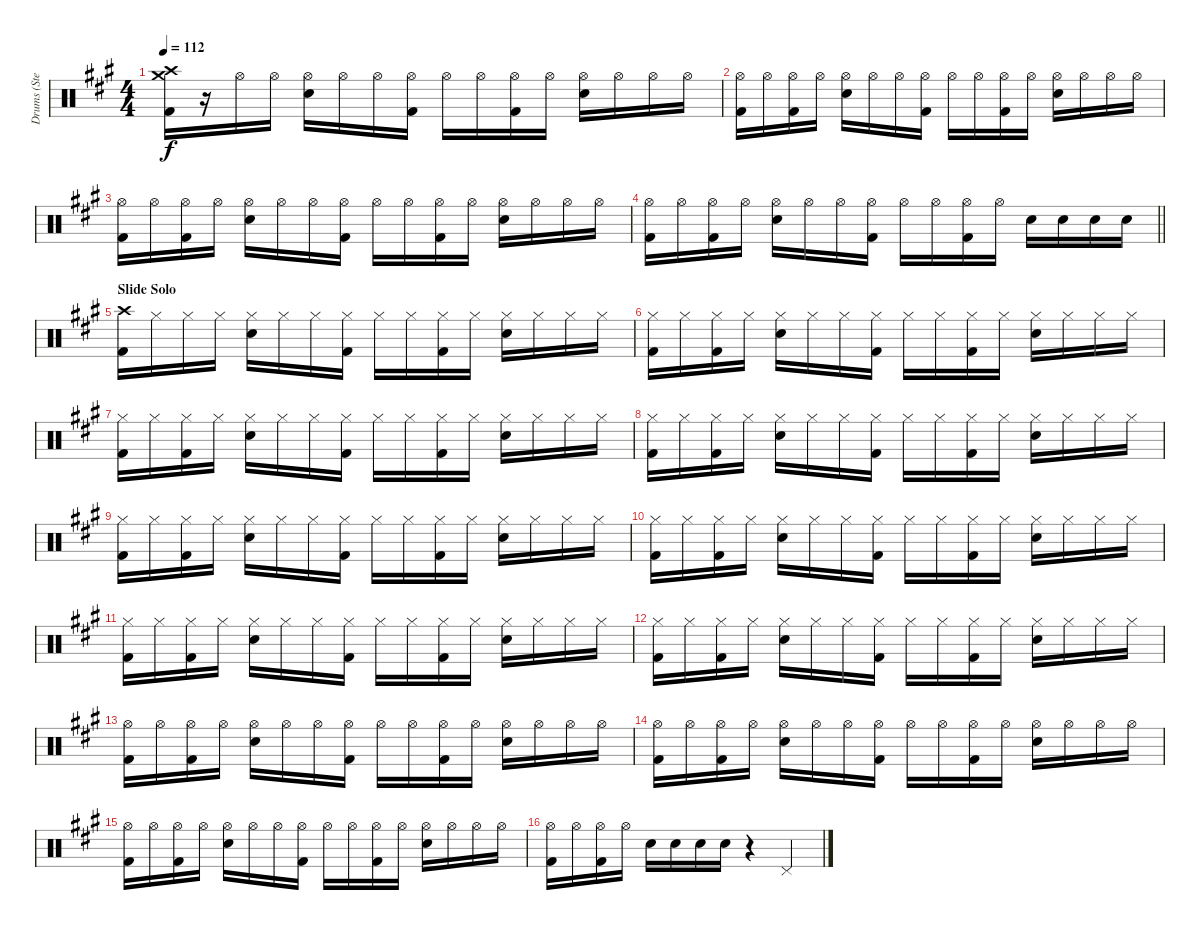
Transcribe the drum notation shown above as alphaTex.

\track ("Drums (Steven)" "Drums (Ste") {instrument percussion}
\staff {score}
\articulation defaults
\ts (4 4)
\tempo 112
\clef neutral
\ks f#minor
("Crash high (hit)" "Crash medium (hit)" "Kick (hit) 2").16{dy f} r.16 "Hi-Hat (open)".16 "Hi-Hat (open)".16 ("Hi-Hat (open)" "Snare (hit) 2").16 "Hi-Hat (open)".16 "Hi-Hat (open)".16 ("Hi-Hat (open)" "Kick (hit) 2").16 "Hi-Hat (open)".16 "Hi-Hat (open)".16 ("Hi-Hat (open)" "Kick (hit) 2").16 "Hi-Hat (open)".16 ("Hi-Hat (open)" "Snare (hit) 2").16 "Hi-Hat (open)".16 "Hi-Hat (open)".16 "Hi-Hat (open)".16 |
("Hi-Hat (open)" "Kick (hit) 2").16 "Hi-Hat (open)".16 ("Hi-Hat (open)" "Kick (hit) 2").16 "Hi-Hat (open)".16 ("Hi-Hat (open)" "Snare (hit) 2").16 "Hi-Hat (open)".16 "Hi-Hat (open)".16 ("Hi-Hat (open)" "Kick (hit) 2").16 "Hi-Hat (open)".16 "Hi-Hat (open)".16 ("Hi-Hat (open)" "Kick (hit) 2").16 "Hi-Hat (open)".16 ("Hi-Hat (open)" "Snare (hit) 2").16 "Hi-Hat (open)".16 "Hi-Hat (open)".16 "Hi-Hat (open)".16 |
("Hi-Hat (open)" "Kick (hit) 2").16 "Hi-Hat (open)".16 ("Hi-Hat (open)" "Kick (hit) 2").16 "Hi-Hat (open)".16 ("Hi-Hat (open)" "Snare (hit) 2").16 "Hi-Hat (open)".16 "Hi-Hat (open)".16 ("Hi-Hat (open)" "Kick (hit) 2").16 "Hi-Hat (open)".16 "Hi-Hat (open)".16 ("Hi-Hat (open)" "Kick (hit) 2").16 "Hi-Hat (open)".16 ("Hi-Hat (open)" "Snare (hit) 2").16 "Hi-Hat (open)".16 "Hi-Hat (open)".16 "Hi-Hat (open)".16 |
\barLineRight lightlight
("Hi-Hat (open)" "Kick (hit) 2").16 "Hi-Hat (open)".16 ("Hi-Hat (open)" "Kick (hit) 2").16 "Hi-Hat (open)".16 ("Hi-Hat (open)" "Snare (hit) 2").16 "Hi-Hat (open)".16 "Hi-Hat (open)".16 ("Hi-Hat (open)" "Kick (hit) 2").16 "Hi-Hat (open)".16 "Hi-Hat (open)".16 ("Hi-Hat (open)" "Kick (hit) 2").16 "Hi-Hat (open)".16 "Snare (hit) 2".16 "Snare (hit) 2".16 "Snare (hit) 2".16 "Snare (hit) 2".16 |
\section ("" "Slide Solo")
("Crash high (hit)" "Kick (hit) 2").16 "Hi-Hat (closed)".16 "Hi-Hat (closed)".16 "Hi-Hat (closed)".16 ("Hi-Hat (closed)" "Snare (hit) 2").16 "Hi-Hat (closed)".16 "Hi-Hat (closed)".16 ("Hi-Hat (closed)" "Kick (hit) 2").16 "Hi-Hat (closed)".16 "Hi-Hat (closed)".16 ("Hi-Hat (closed)" "Kick (hit) 2").16 "Hi-Hat (closed)".16 ("Hi-Hat (closed)" "Snare (hit) 2").16 "Hi-Hat (closed)".16 "Hi-Hat (closed)".16 "Hi-Hat (closed)".16 |
("Hi-Hat (closed)" "Kick (hit) 2").16 "Hi-Hat (closed)".16 ("Hi-Hat (closed)" "Kick (hit) 2").16 "Hi-Hat (closed)".16 ("Hi-Hat (closed)" "Snare (hit) 2").16 "Hi-Hat (closed)".16 "Hi-Hat (closed)".16 ("Hi-Hat (closed)" "Kick (hit) 2").16 "Hi-Hat (closed)".16 "Hi-Hat (closed)".16 ("Hi-Hat (closed)" "Kick (hit) 2").16 "Hi-Hat (closed)".16 ("Hi-Hat (closed)" "Snare (hit) 2").16 "Hi-Hat (closed)".16 "Hi-Hat (closed)".16 "Hi-Hat (closed)".16 |
("Hi-Hat (closed)" "Kick (hit) 2").16 "Hi-Hat (closed)".16 ("Hi-Hat (closed)" "Kick (hit) 2").16 "Hi-Hat (closed)".16 ("Hi-Hat (closed)" "Snare (hit) 2").16 "Hi-Hat (closed)".16 "Hi-Hat (closed)".16 ("Hi-Hat (closed)" "Kick (hit) 2").16 "Hi-Hat (closed)".16 "Hi-Hat (closed)".16 ("Hi-Hat (closed)" "Kick (hit) 2").16 "Hi-Hat (closed)".16 ("Hi-Hat (closed)" "Snare (hit) 2").16 "Hi-Hat (closed)".16 "Hi-Hat (closed)".16 "Hi-Hat (closed)".16 |
("Hi-Hat (closed)" "Kick (hit) 2").16 "Hi-Hat (closed)".16 ("Hi-Hat (closed)" "Kick (hit) 2").16 "Hi-Hat (closed)".16 ("Hi-Hat (closed)" "Snare (hit) 2").16 "Hi-Hat (closed)".16 "Hi-Hat (closed)".16 ("Hi-Hat (closed)" "Kick (hit) 2").16 "Hi-Hat (closed)".16 "Hi-Hat (closed)".16 ("Hi-Hat (closed)" "Kick (hit) 2").16 "Hi-Hat (closed)".16 ("Hi-Hat (closed)" "Snare (hit) 2").16 "Hi-Hat (closed)".16 "Hi-Hat (closed)".16 "Hi-Hat (closed)".16 |
("Hi-Hat (closed)" "Kick (hit) 2").16 "Hi-Hat (closed)".16 ("Hi-Hat (closed)" "Kick (hit) 2").16 "Hi-Hat (closed)".16 ("Hi-Hat (closed)" "Snare (hit) 2").16 "Hi-Hat (closed)".16 "Hi-Hat (closed)".16 ("Hi-Hat (closed)" "Kick (hit) 2").16 "Hi-Hat (closed)".16 "Hi-Hat (closed)".16 ("Hi-Hat (closed)" "Kick (hit) 2").16 "Hi-Hat (closed)".16 ("Hi-Hat (closed)" "Snare (hit) 2").16 "Hi-Hat (closed)".16 "Hi-Hat (closed)".16 "Hi-Hat (closed)".16 |
("Hi-Hat (closed)" "Kick (hit) 2").16 "Hi-Hat (closed)".16 ("Hi-Hat (closed)" "Kick (hit) 2").16 "Hi-Hat (closed)".16 ("Hi-Hat (closed)" "Snare (hit) 2").16 "Hi-Hat (closed)".16 "Hi-Hat (closed)".16 ("Hi-Hat (closed)" "Kick (hit) 2").16 "Hi-Hat (closed)".16 "Hi-Hat (closed)".16 ("Hi-Hat (closed)" "Kick (hit) 2").16 "Hi-Hat (closed)".16 ("Hi-Hat (closed)" "Snare (hit) 2").16 "Hi-Hat (closed)".16 "Hi-Hat (closed)".16 "Hi-Hat (closed)".16 |
("Hi-Hat (closed)" "Kick (hit) 2").16 "Hi-Hat (closed)".16 ("Hi-Hat (closed)" "Kick (hit) 2").16 "Hi-Hat (closed)".16 ("Hi-Hat (closed)" "Snare (hit) 2").16 "Hi-Hat (closed)".16 "Hi-Hat (closed)".16 ("Hi-Hat (closed)" "Kick (hit) 2").16 "Hi-Hat (closed)".16 "Hi-Hat (closed)".16 ("Hi-Hat (closed)" "Kick (hit) 2").16 "Hi-Hat (closed)".16 ("Hi-Hat (closed)" "Snare (hit) 2").16 "Hi-Hat (closed)".16 "Hi-Hat (closed)".16 "Hi-Hat (closed)".16 |
("Hi-Hat (closed)" "Kick (hit) 2").16 "Hi-Hat (closed)".16 ("Hi-Hat (closed)" "Kick (hit) 2").16 "Hi-Hat (closed)".16 ("Hi-Hat (closed)" "Snare (hit) 2").16 "Hi-Hat (closed)".16 "Hi-Hat (closed)".16 ("Hi-Hat (closed)" "Kick (hit) 2").16 "Hi-Hat (closed)".16 "Hi-Hat (closed)".16 ("Hi-Hat (closed)" "Kick (hit) 2").16 "Hi-Hat (closed)".16 ("Hi-Hat (closed)" "Snare (hit) 2").16 "Hi-Hat (closed)".16 "Hi-Hat (closed)".16 "Hi-Hat (closed)".16 |
("Hi-Hat (open)" "Kick (hit) 2").16 "Hi-Hat (open)".16 ("Hi-Hat (open)" "Kick (hit) 2").16 "Hi-Hat (open)".16 ("Hi-Hat (open)" "Snare (hit) 2").16 "Hi-Hat (open)".16 "Hi-Hat (open)".16 ("Hi-Hat (open)" "Kick (hit) 2").16 "Hi-Hat (open)".16 "Hi-Hat (open)".16 ("Hi-Hat (open)" "Kick (hit) 2").16 "Hi-Hat (open)".16 ("Hi-Hat (open)" "Snare (hit) 2").16 "Hi-Hat (open)".16 "Hi-Hat (open)".16 "Hi-Hat (open)".16 |
("Hi-Hat (open)" "Kick (hit) 2").16 "Hi-Hat (open)".16 ("Hi-Hat (open)" "Kick (hit) 2").16 "Hi-Hat (open)".16 ("Hi-Hat (open)" "Snare (hit) 2").16 "Hi-Hat (open)".16 "Hi-Hat (open)".16 ("Hi-Hat (open)" "Kick (hit) 2").16 "Hi-Hat (open)".16 "Hi-Hat (open)".16 ("Hi-Hat (open)" "Kick (hit) 2").16 "Hi-Hat (open)".16 ("Hi-Hat (open)" "Snare (hit) 2").16 "Hi-Hat (open)".16 "Hi-Hat (open)".16 "Hi-Hat (open)".16 |
("Hi-Hat (open)" "Kick (hit) 2").16 "Hi-Hat (open)".16 ("Hi-Hat (open)" "Kick (hit) 2").16 "Hi-Hat (open)".16 ("Hi-Hat (open)" "Snare (hit) 2").16 "Hi-Hat (open)".16 "Hi-Hat (open)".16 ("Hi-Hat (open)" "Kick (hit) 2").16 "Hi-Hat (open)".16 "Hi-Hat (open)".16 ("Hi-Hat (open)" "Kick (hit) 2").16 "Hi-Hat (open)".16 ("Hi-Hat (open)" "Snare (hit) 2").16 "Hi-Hat (open)".16 "Hi-Hat (open)".16 "Hi-Hat (open)".16 |
("Hi-Hat (open)" "Kick (hit) 2").16 "Hi-Hat (open)".16 ("Hi-Hat (open)" "Kick (hit) 2").16 "Hi-Hat (open)".16 "Snare (hit) 2".16 "Snare (hit) 2".16 "Snare (hit) 2".16 "Snare (hit) 2".16 r.4 "Pedal Hi-Hat (hit)".4
